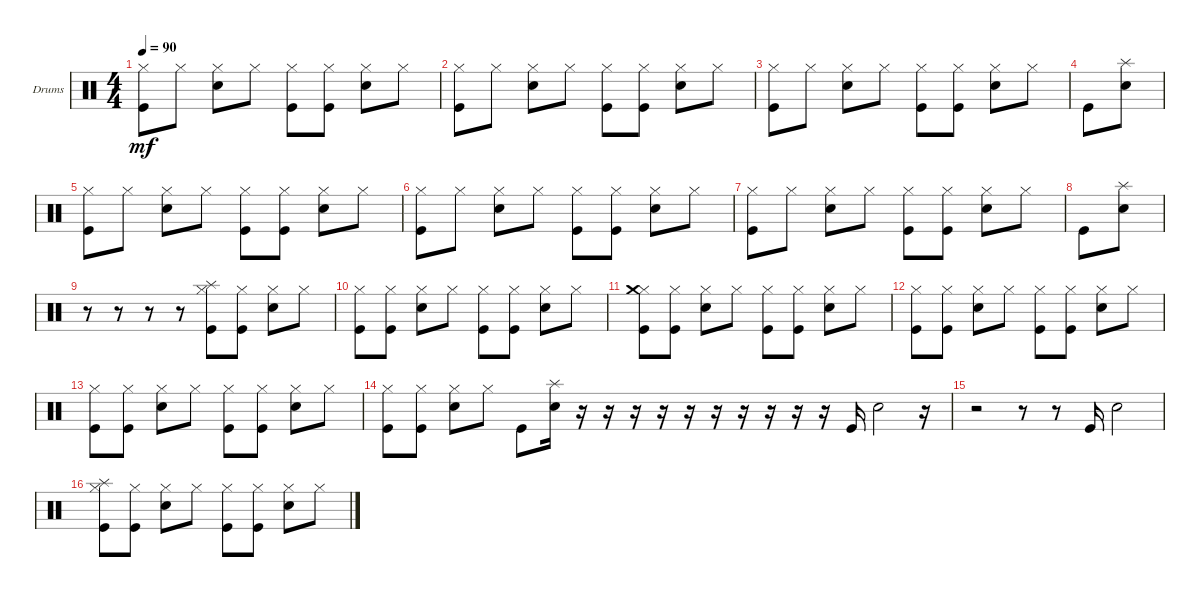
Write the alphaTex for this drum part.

\defaultSystemsLayout 4
\bracketExtendMode groupsimilarinstruments
\firstSystemTrackNameOrientation horizontal
\otherSystemsTrackNameOrientation horizontal
\track ("Drumkit" "Drums") {instrument percussion}
\staff {score}
\articulation defaults
\ts (4 4)
\tempo 90
\clef neutral
\ks c
("Kick (hit)" "Hi-Hat (closed)").8{dy mf} "Hi-Hat (closed)".8 ("Hi-Hat (closed)" "Snare (hit) 2").8 "Hi-Hat (closed)".8 ("Hi-Hat (closed)" "Kick (hit)").8 ("Hi-Hat (closed)" "Kick (hit)").8 ("Hi-Hat (closed)" "Snare (hit) 2").8 "Hi-Hat (closed)".8 |
("Kick (hit)" "Hi-Hat (closed)").8 "Hi-Hat (closed)".8 ("Hi-Hat (closed)" "Snare (hit) 2").8 "Hi-Hat (closed)".8 ("Hi-Hat (closed)" "Kick (hit)").8 ("Hi-Hat (closed)" "Kick (hit)").8 ("Hi-Hat (closed)" "Snare (hit) 2").8 "Hi-Hat (closed)".8 |
("Kick (hit)" "Hi-Hat (closed)").8 "Hi-Hat (closed)".8 ("Hi-Hat (closed)" "Snare (hit) 2").8 "Hi-Hat (closed)".8 ("Hi-Hat (closed)" "Kick (hit)").8 ("Hi-Hat (closed)" "Kick (hit)").8 ("Hi-Hat (closed)" "Snare (hit) 2").8 "Hi-Hat (closed)".8 |
"Kick (hit)".8 ("Snare (hit) 2" "Splash (hit)").8 |
("Kick (hit)" "Hi-Hat (closed)").8 "Hi-Hat (closed)".8 ("Hi-Hat (closed)" "Snare (hit) 2").8 "Hi-Hat (closed)".8 ("Hi-Hat (closed)" "Kick (hit)").8 ("Hi-Hat (closed)" "Kick (hit)").8 ("Hi-Hat (closed)" "Snare (hit) 2").8 "Hi-Hat (closed)".8 |
("Kick (hit)" "Hi-Hat (closed)").8 "Hi-Hat (closed)".8 ("Hi-Hat (closed)" "Snare (hit) 2").8 "Hi-Hat (closed)".8 ("Hi-Hat (closed)" "Kick (hit)").8 ("Hi-Hat (closed)" "Kick (hit)").8 ("Hi-Hat (closed)" "Snare (hit) 2").8 "Hi-Hat (closed)".8 |
("Kick (hit)" "Hi-Hat (closed)").8 "Hi-Hat (closed)".8 ("Hi-Hat (closed)" "Snare (hit) 2").8 "Hi-Hat (closed)".8 ("Hi-Hat (closed)" "Kick (hit)").8 ("Hi-Hat (closed)" "Kick (hit)").8 ("Hi-Hat (closed)" "Snare (hit) 2").8 "Hi-Hat (closed)".8 |
"Kick (hit)".8 ("Snare (hit) 2" "Splash (hit)").8 |
r.8 r.8 r.8 r.8 ("Hi-Hat (closed)" "Kick (hit)" "Splash (hit)").8 ("Hi-Hat (closed)" "Kick (hit)").8 ("Hi-Hat (closed)" "Snare (hit) 2").8 "Hi-Hat (closed)".8 |
("Kick (hit)" "Hi-Hat (closed)").8 ("Kick (hit)" "Hi-Hat (closed)").8 ("Hi-Hat (closed)" "Snare (hit) 2").8 "Hi-Hat (closed)".8 ("Hi-Hat (closed)" "Kick (hit)").8 ("Hi-Hat (closed)" "Kick (hit)").8 ("Hi-Hat (closed)" "Snare (hit) 2").8 "Hi-Hat (closed)".8 |
("Kick (hit)" "Hi-Hat (closed)" "Crash medium (hit)").8 ("Kick (hit)" "Hi-Hat (closed)").8 ("Hi-Hat (closed)" "Snare (hit) 2").8 "Hi-Hat (closed)".8 ("Hi-Hat (closed)" "Kick (hit)").8 ("Hi-Hat (closed)" "Kick (hit)").8 ("Hi-Hat (closed)" "Snare (hit) 2").8 "Hi-Hat (closed)".8 |
("Kick (hit)" "Hi-Hat (closed)").8 ("Kick (hit)" "Hi-Hat (closed)").8 ("Hi-Hat (closed)" "Snare (hit) 2").8 "Hi-Hat (closed)".8 ("Hi-Hat (closed)" "Kick (hit)").8 ("Hi-Hat (closed)" "Kick (hit)").8 ("Hi-Hat (closed)" "Snare (hit) 2").8 "Hi-Hat (closed)".8 |
("Kick (hit)" "Hi-Hat (closed)").8 ("Kick (hit)" "Hi-Hat (closed)").8 ("Hi-Hat (closed)" "Snare (hit) 2").8 "Hi-Hat (closed)".8 ("Hi-Hat (closed)" "Kick (hit)").8 ("Hi-Hat (closed)" "Kick (hit)").8 ("Hi-Hat (closed)" "Snare (hit) 2").8 "Hi-Hat (closed)".8 |
("Kick (hit)" "Hi-Hat (closed)").8 ("Kick (hit)" "Hi-Hat (closed)").8 ("Hi-Hat (closed)" "Snare (hit) 2").8 "Hi-Hat (closed)".8 "Kick (hit)".8 ("Snare (hit) 2" "Splash (hit)").16 r.16 r.16 r.16 r.16 r.16 r.16 r.16 r.16 r.16 r.16 "Kick (hit)".16 "Snare (hit) 2".2 r.16 |
r.2 r.8 r.8 "Kick (hit)".16 "Snare (hit) 2".2 |
("Kick (hit)" "Hi-Hat (closed)" "Splash (hit)").8 ("Kick (hit)" "Hi-Hat (closed)").8 ("Hi-Hat (closed)" "Snare (hit) 2").8 "Hi-Hat (closed)".8 ("Hi-Hat (closed)" "Kick (hit)").8 ("Hi-Hat (closed)" "Kick (hit)").8 ("Hi-Hat (closed)" "Snare (hit) 2").8 "Hi-Hat (closed)".8
